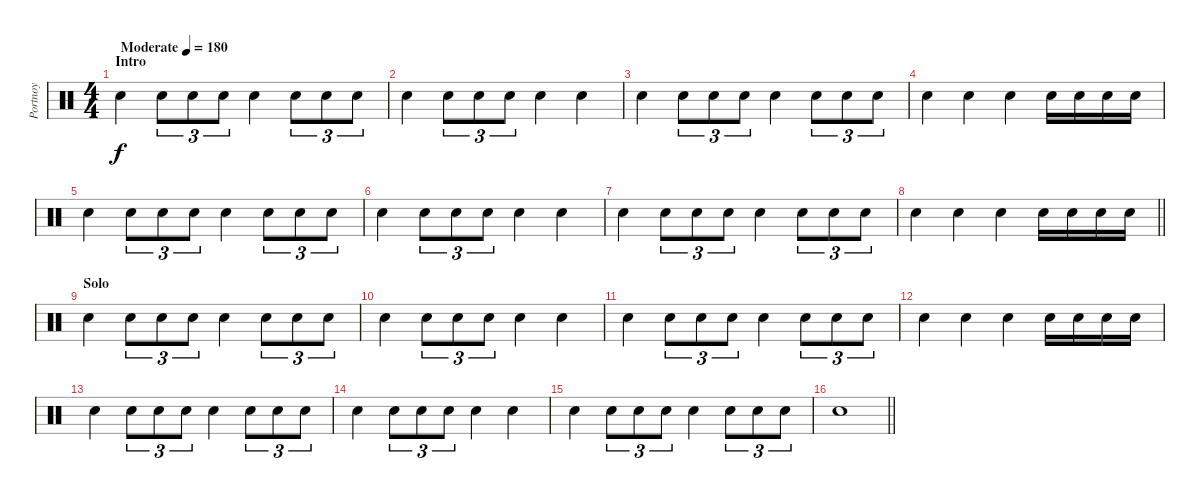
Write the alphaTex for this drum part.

\track ("Portnoy" "Portnoy") {instrument percussion}
\staff {score}
\articulation defaults
\ts (4 4)
\section ("" "Intro")
\tempo (180 "Moderate")
\clef neutral
\ks c "Electric Snare (hit)".4{dy f} "Electric Snare (hit)".8{tu (3 2)} "Electric Snare (hit)".8{tu (3 2)} "Electric Snare (hit)".8{tu (3 2)} "Electric Snare (hit)".4 "Electric Snare (hit)".8{tu (3 2)} "Electric Snare (hit)".8{tu (3 2)} "Electric Snare (hit)".8{tu (3 2)}
|
"Electric Snare (hit)".4 "Electric Snare (hit)".8{tu (3 2)} "Electric Snare (hit)".8{tu (3 2)} "Electric Snare (hit)".8{tu (3 2)} "Electric Snare (hit)".4 "Electric Snare (hit)".4 |
"Electric Snare (hit)".4 "Electric Snare (hit)".8{tu (3 2)} "Electric Snare (hit)".8{tu (3 2)} "Electric Snare (hit)".8{tu (3 2)} "Electric Snare (hit)".4 "Electric Snare (hit)".8{tu (3 2)} "Electric Snare (hit)".8{tu (3 2)} "Electric Snare (hit)".8{tu (3 2)} |
"Electric Snare (hit)".4 "Electric Snare (hit)".4 "Electric Snare (hit)".4 "Electric Snare (hit)".16 "Electric Snare (hit)".16 "Electric Snare (hit)".16 "Electric Snare (hit)".16 |
"Electric Snare (hit)".4 "Electric Snare (hit)".8{tu (3 2)} "Electric Snare (hit)".8{tu (3 2)} "Electric Snare (hit)".8{tu (3 2)} "Electric Snare (hit)".4 "Electric Snare (hit)".8{tu (3 2)} "Electric Snare (hit)".8{tu (3 2)} "Electric Snare (hit)".8{tu (3 2)} |
"Electric Snare (hit)".4 "Electric Snare (hit)".8{tu (3 2)} "Electric Snare (hit)".8{tu (3 2)} "Electric Snare (hit)".8{tu (3 2)} "Electric Snare (hit)".4 "Electric Snare (hit)".4 |
"Electric Snare (hit)".4 "Electric Snare (hit)".8{tu (3 2)} "Electric Snare (hit)".8{tu (3 2)} "Electric Snare (hit)".8{tu (3 2)} "Electric Snare (hit)".4 "Electric Snare (hit)".8{tu (3 2)} "Electric Snare (hit)".8{tu (3 2)} "Electric Snare (hit)".8{tu (3 2)} |
\barLineRight lightlight "Electric Snare (hit)".4 "Electric Snare (hit)".4 "Electric Snare (hit)".4 "Electric Snare (hit)".16 "Electric Snare (hit)".16 "Electric Snare (hit)".16 "Electric Snare (hit)".16
|
\section ("" "Solo")
"Electric Snare (hit)".4 "Electric Snare (hit)".8{tu (3 2)} "Electric Snare (hit)".8{tu (3 2)} "Electric Snare (hit)".8{tu (3 2)} "Electric Snare (hit)".4 "Electric Snare (hit)".8{tu (3 2)} "Electric Snare (hit)".8{tu (3 2)} "Electric Snare (hit)".8{tu (3 2)} |
"Electric Snare (hit)".4 "Electric Snare (hit)".8{tu (3 2)} "Electric Snare (hit)".8{tu (3 2)} "Electric Snare (hit)".8{tu (3 2)} "Electric Snare (hit)".4 "Electric Snare (hit)".4 |
"Electric Snare (hit)".4 "Electric Snare (hit)".8{tu (3 2)} "Electric Snare (hit)".8{tu (3 2)} "Electric Snare (hit)".8{tu (3 2)} "Electric Snare (hit)".4 "Electric Snare (hit)".8{tu (3 2)} "Electric Snare (hit)".8{tu (3 2)} "Electric Snare (hit)".8{tu (3 2)} |
"Electric Snare (hit)".4 "Electric Snare (hit)".4 "Electric Snare (hit)".4 "Electric Snare (hit)".16 "Electric Snare (hit)".16 "Electric Snare (hit)".16 "Electric Snare (hit)".16 |
"Electric Snare (hit)".4 "Electric Snare (hit)".8{tu (3 2)} "Electric Snare (hit)".8{tu (3 2)} "Electric Snare (hit)".8{tu (3 2)} "Electric Snare (hit)".4 "Electric Snare (hit)".8{tu (3 2)} "Electric Snare (hit)".8{tu (3 2)} "Electric Snare (hit)".8{tu (3 2)} |
"Electric Snare (hit)".4 "Electric Snare (hit)".8{tu (3 2)} "Electric Snare (hit)".8{tu (3 2)} "Electric Snare (hit)".8{tu (3 2)} "Electric Snare (hit)".4 "Electric Snare (hit)".4 |
"Electric Snare (hit)".4 "Electric Snare (hit)".8{tu (3 2)} "Electric Snare (hit)".8{tu (3 2)} "Electric Snare (hit)".8{tu (3 2)} "Electric Snare (hit)".4 "Electric Snare (hit)".8{tu (3 2)} "Electric Snare (hit)".8{tu (3 2)} "Electric Snare (hit)".8{tu (3 2)} |
\barLineRight lightlight "Electric Snare (hit)".1
